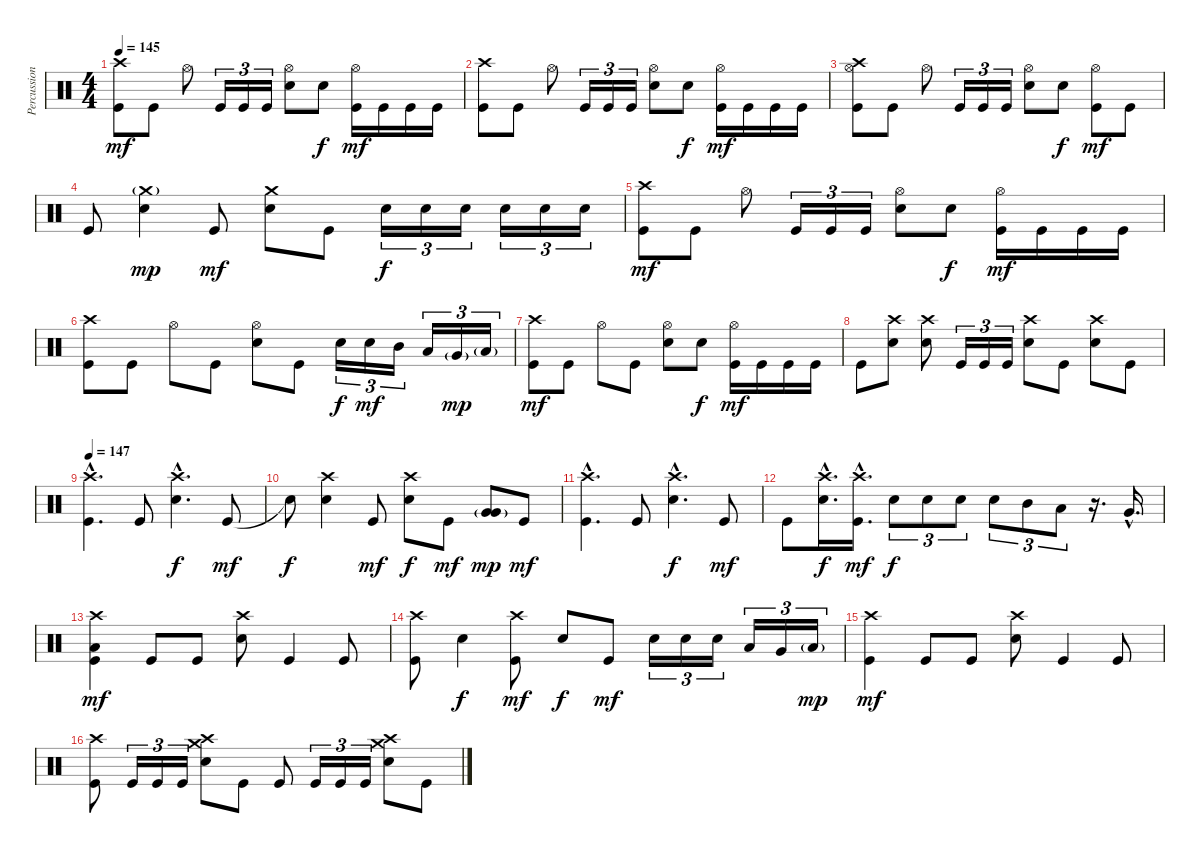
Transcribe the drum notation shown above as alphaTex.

\track ("Percussion" "Percussion") {instrument percussion}
\staff {score}
\articulation defaults
\ts (4 4)
\tempo 145
\clef neutral
\ks c
("Crash high (hit)" "Kick (hit)").8{dy mf} "Kick (hit)".8 "Hi-Hat (open)".8 "Kick (hit)".16{tu (3 2)} "Kick (hit)".16{tu (3 2)} "Kick (hit)".16{tu (3 2)} ("Hi-Hat (open)" "Electric Snare (hit)").8 "Electric Snare (hit)".8{dy f} ("Hi-Hat (open)" "Kick (hit)").16{dy mf} "Kick (hit)".16 "Kick (hit)".16 "Kick (hit)".16 |
("Crash high (hit)" "Kick (hit)").8 "Kick (hit)".8 "Hi-Hat (open)".8 "Kick (hit)".16{tu (3 2)} "Kick (hit)".16{tu (3 2)} "Kick (hit)".16{tu (3 2)} ("Hi-Hat (open)" "Electric Snare (hit)").8 "Electric Snare (hit)".8{dy f} ("Hi-Hat (open)" "Kick (hit)").16{dy mf} "Kick (hit)".16 "Kick (hit)".16 "Kick (hit)".16 |
("Crash high (hit)" "Hi-Hat (open)" "Kick (hit)").8 "Kick (hit)".8 "Hi-Hat (open)".8 "Kick (hit)".16{tu (3 2)} "Kick (hit)".16{tu (3 2)} "Kick (hit)".16{tu (3 2)} ("Hi-Hat (open)" "Electric Snare (hit)").8 "Electric Snare (hit)".8{dy f} ("Hi-Hat (open)" "Kick (hit)").8{dy mf} "Kick (hit)".8 |
"Kick (hit)".8 ("Crash medium (hit)"{g} "Electric Snare (hit)").4{dy mp} "Kick (hit)".8{dy mf} ("Crash medium (hit)" "Electric Snare (hit)").8 "Kick (hit)".8 "Electric Snare (hit)".16{tu (3 2) dy f} "Electric Snare (hit)".16{tu (3 2)} "Electric Snare (hit)".16{tu (3 2)} "Electric Snare (hit)".16{tu (3 2)} "Electric Snare (hit)".16{tu (3 2)} "Electric Snare (hit)".16{tu (3 2)} |
("Crash high (hit)" "Kick (hit)").8{dy mf} "Kick (hit)".8 "Hi-Hat (open)".8 "Kick (hit)".16{tu (3 2)} "Kick (hit)".16{tu (3 2)} "Kick (hit)".16{tu (3 2)} ("Hi-Hat (open)" "Electric Snare (hit)").8 "Electric Snare (hit)".8{dy f} ("Hi-Hat (open)" "Kick (hit)").16{dy mf} "Kick (hit)".16 "Kick (hit)".16 "Kick (hit)".16 |
("Crash high (hit)" "Kick (hit)").8 "Kick (hit)".8 "Hi-Hat (open)".8 "Kick (hit)".8 ("Hi-Hat (open)" "Electric Snare (hit)").8 "Kick (hit)".8 "Electric Snare (hit)".16{tu (3 2) dy f} "Electric Snare (hit)".16{tu (3 2) dy mf} "Mid Tom (hit)".16{tu (3 2)} "Low Tom (hit)".16{tu (3 2)} "Very Low Tom (hit)"{g}.16{tu (3 2) dy mp} "Low Floor Tom (hit)"{g}.16{tu (3 2)} |
("Crash high (hit)" "Kick (hit)").8{dy mf} "Kick (hit)".8 "Hi-Hat (open)".8 "Kick (hit)".8 ("Hi-Hat (open)" "Electric Snare (hit)").8 "Electric Snare (hit)".8{dy f} ("Hi-Hat (open)" "Kick (hit)").16{dy mf} "Kick (hit)".16 "Kick (hit)".16 "Kick (hit)".16 |
"Kick (hit)".8 ("Crash high (hit)" "Electric Snare (hit)").8 ("Crash high (hit)" "Electric Snare (hit)").8 "Kick (hit)".16{tu (3 2)} "Kick (hit)".16{tu (3 2)} "Kick (hit)".16{tu (3 2)} ("Crash high (hit)" "Electric Snare (hit)").8 "Kick (hit)".8 ("Crash high (hit)" "Electric Snare (hit)").8 "Kick (hit)".8 |
\tempo 147
("Crash high (hit)"{hac} "Kick (hit)"{hac}).4{d} "Kick (hit)".8 ("Crash high (hit)"{hac} "Electric Snare (hit)"{hac}).4{d dy f} "Kick (hit)".8{dy mf} |
"Snare (hit)"{t}.8{dy f} ("Crash high (hit)" "Electric Snare (hit)").4 "Kick (hit)".8{dy mf} ("Crash high (hit)" "Electric Snare (hit)").8{dy f} "Kick (hit)".8{dy mf} ("Very Low Tom (hit)"{g} "Very Low Tom (hit)").8{dy mp} "Kick (hit)".8{dy mf} |
("Crash high (hit)"{hac} "Kick (hit)"{hac}).4{d} "Kick (hit)".8 ("Crash high (hit)"{hac} "Electric Snare (hit)"{hac}).4{d dy f} "Kick (hit)".8{dy mf} |
"Kick (hit)".8 ("Crash high (hit)"{hac} "Electric Snare (hit)"{hac}).16{d dy f} ("Crash high (hit)"{hac} "Kick (hit)"{hac}).16{d dy mf} "Electric Snare (hit)".8{tu (3 2) dy f} "Electric Snare (hit)".8{tu (3 2)} "Electric Snare (hit)".8{tu (3 2)} "Electric Snare (hit)".8{tu (3 2)} "Mid Tom (hit)".8{tu (3 2)} "Low Tom (hit)".8{tu (3 2)} r.16{d} "Very Low Tom (hit)"{hac}.16{d} |
("Crash high (hit)" "Low Floor Tom (hit)" "Kick (hit)").4{dy mf} "Kick (hit)".8 "Kick (hit)".8 ("Crash high (hit)" "Electric Snare (hit)").8 "Kick (hit)".4 "Kick (hit)".8 |
("Crash high (hit)" "Kick (hit)").8 "Electric Snare (hit)".4{dy f} ("Crash high (hit)" "Kick (hit)").8{dy mf} "Electric Snare (hit)".8{dy f} "Kick (hit)".8{dy mf} "Electric Snare (hit)".16{tu (3 2)} "Electric Snare (hit)".16{tu (3 2)} "Electric Snare (hit)".16{tu (3 2)} "Low Tom (hit)".16{tu (3 2)} "Very Low Tom (hit)".16{tu (3 2)} "Low Floor Tom (hit)"{g}.16{tu (3 2) dy mp} |
("Crash high (hit)" "Kick (hit)").4{dy mf} "Kick (hit)".8 "Kick (hit)".8 ("Crash high (hit)" "Electric Snare (hit)").8 "Kick (hit)".4 "Kick (hit)".8 |
("Crash high (hit)" "Kick (hit)").8 "Kick (hit)".16{tu (3 2)} "Kick (hit)".16{tu (3 2)} "Kick (hit)".16{tu (3 2)} ("Crash medium (hit)" "Crash high (hit)" "Electric Snare (hit)").8 "Kick (hit)".8 "Kick (hit)".8 "Kick (hit)".16{tu (3 2)} "Kick (hit)".16{tu (3 2)} "Kick (hit)".16{tu (3 2)} ("Crash medium (hit)" "Crash high (hit)" "Electric Snare (hit)").8 "Kick (hit)".8
